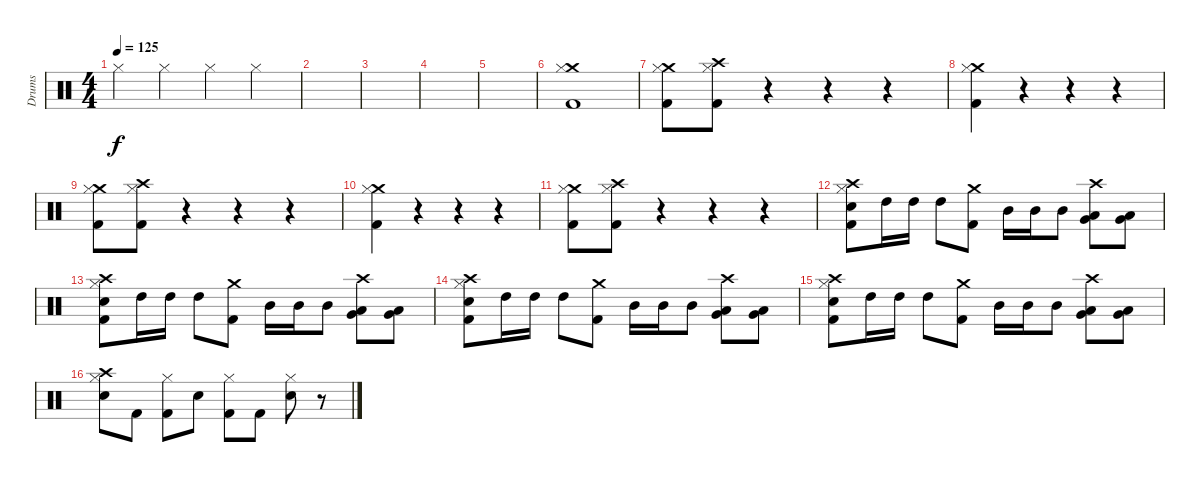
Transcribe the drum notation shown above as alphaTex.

\track ("Drums" "Drums") {instrument percussion}
\staff {score}
\articulation defaults
\ts (4 4)
\tempo 125
\clef neutral
\ks c "Hi-Hat (closed)".4{dy f} "Hi-Hat (closed)".4 "Hi-Hat (closed)".4 "Hi-Hat (closed)".4
|
|
|
|
|
("Kick (hit) 2" "Crash medium (hit)" "Hi-Hat (closed)").1 |
("Kick (hit) 2" "Crash medium (hit)" "Hi-Hat (closed)").8 ("Kick (hit) 2" "Crash high (hit)" "Hi-Hat (closed)").8 r.4 r.4 r.4 |
("Kick (hit) 2" "Crash medium (hit)" "Hi-Hat (closed)").4 r.4 r.4 r.4 |
("Kick (hit) 2" "Crash medium (hit)" "Hi-Hat (closed)").8 ("Kick (hit) 2" "Crash high (hit)" "Hi-Hat (closed)").8 r.4 r.4 r.4 |
("Kick (hit) 2" "Crash medium (hit)" "Hi-Hat (closed)").4 r.4 r.4 r.4 |
("Kick (hit) 2" "Crash medium (hit)" "Hi-Hat (closed)").8 ("Kick (hit) 2" "Crash high (hit)" "Hi-Hat (closed)").8 r.4 r.4 r.4 |
("Kick (hit) 2" "Electric Snare (hit)" "Crash high (hit)" "Hi-Hat (closed)").8 "High Tom (hit)".16 "High Tom (hit)".16 "High Tom (hit)".8 ("Kick (hit) 2" "Crash medium (hit)").8 "Mid Tom (hit)".16 "Mid Tom (hit)".16 "Mid Tom (hit)".8 ("Low Tom (hit)" "Very Low Tom (hit)" "Crash high (hit)").8 ("Low Tom (hit)" "Very Low Tom (hit)").8 |
("Kick (hit) 2" "Electric Snare (hit)" "Crash high (hit)" "Hi-Hat (closed)").8 "High Tom (hit)".16 "High Tom (hit)".16 "High Tom (hit)".8 ("Kick (hit) 2" "Crash medium (hit)").8 "Mid Tom (hit)".16 "Mid Tom (hit)".16 "Mid Tom (hit)".8 ("Low Tom (hit)" "Very Low Tom (hit)" "Crash high (hit)").8 ("Low Tom (hit)" "Very Low Tom (hit)").8 |
("Kick (hit) 2" "Electric Snare (hit)" "Crash high (hit)" "Hi-Hat (closed)").8 "High Tom (hit)".16 "High Tom (hit)".16 "High Tom (hit)".8 ("Kick (hit) 2" "Crash medium (hit)").8 "Mid Tom (hit)".16 "Mid Tom (hit)".16 "Mid Tom (hit)".8 ("Low Tom (hit)" "Very Low Tom (hit)" "Crash high (hit)").8 ("Low Tom (hit)" "Very Low Tom (hit)").8 |
("Kick (hit) 2" "Electric Snare (hit)" "Crash high (hit)" "Hi-Hat (closed)").8 "High Tom (hit)".16 "High Tom (hit)".16 "High Tom (hit)".8 ("Kick (hit) 2" "Crash medium (hit)").8 "Mid Tom (hit)".16 "Mid Tom (hit)".16 "Mid Tom (hit)".8 ("Low Tom (hit)" "Very Low Tom (hit)" "Crash high (hit)").8 ("Low Tom (hit)" "Very Low Tom (hit)").8 |
("Electric Snare (hit)" "Crash high (hit)" "Hi-Hat (closed)").8 "Kick (hit) 2".8 ("Kick (hit) 2" "Hi-Hat (closed)").8 "Electric Snare (hit)".8 ("Kick (hit) 2" "Hi-Hat (closed)").8 "Kick (hit) 2".8 ("Electric Snare (hit)" "Hi-Hat (closed)").8 r.8
